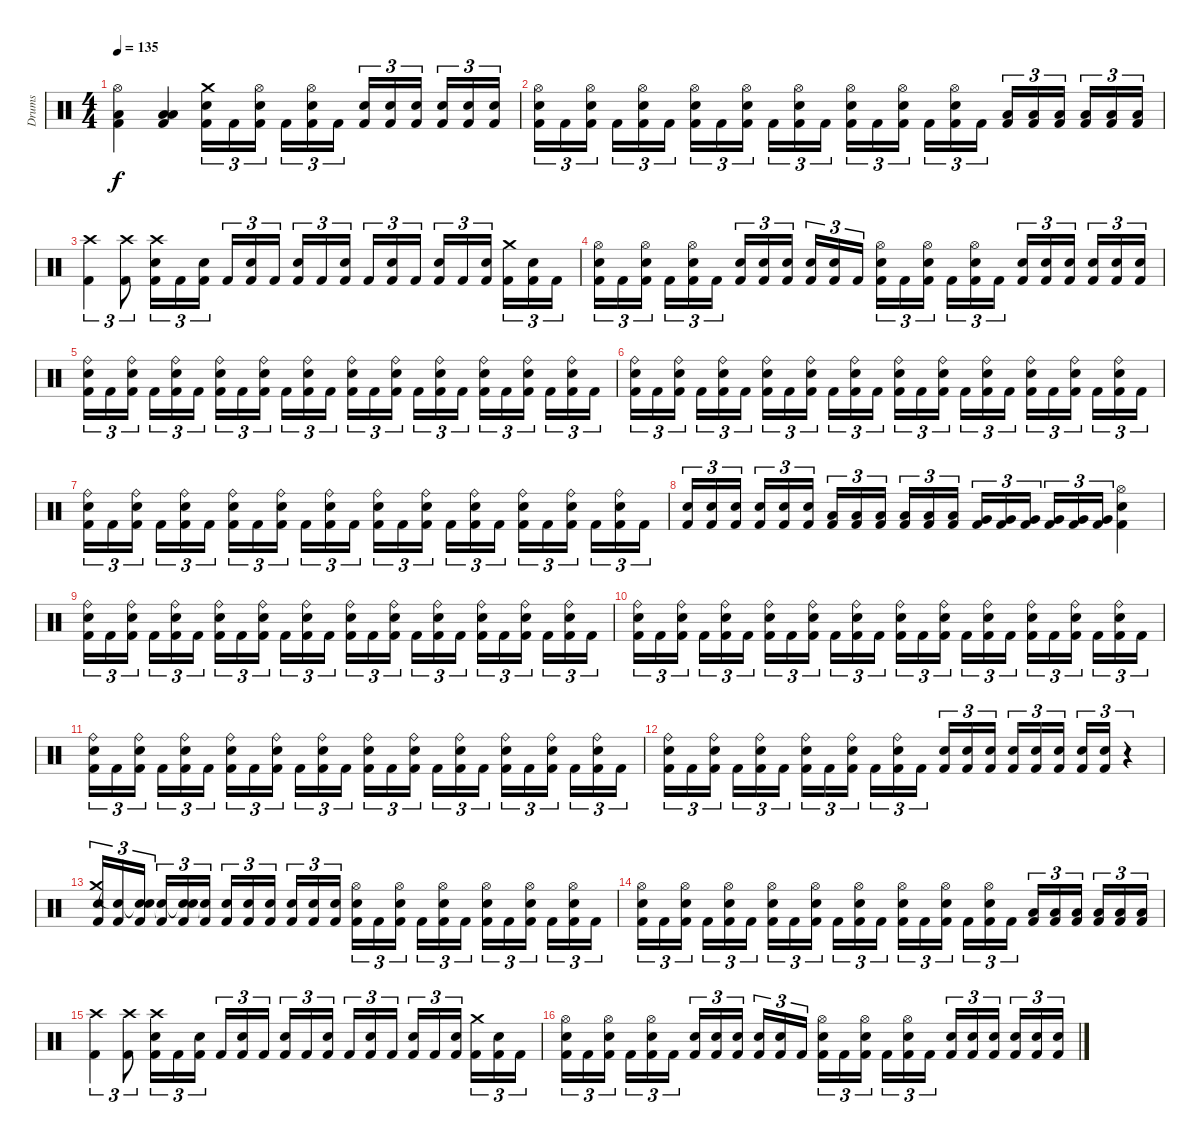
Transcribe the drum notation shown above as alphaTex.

\track ("Drums" "Drums") {instrument percussion}
\staff {score}
\articulation defaults
\ts (4 4)
\tempo 135
\clef neutral
\ks c
("Hi-Hat (open)" "Low Floor Tom (hit)" "Kick (hit) 2").4{dy f} ("Low Floor Tom (hit)" "Low Floor Tom (hit)" "Kick (hit) 2").4 ("Crash medium (hit)" "Electric Snare (hit)" "Kick (hit) 2").16{tu (3 2)} "Kick (hit) 2".16{tu (3 2)} ("Hi-Hat (open)" "Electric Snare (hit)" "Kick (hit) 2").16{tu (3 2)} "Kick (hit) 2".16{tu (3 2)} ("Hi-Hat (open)" "Electric Snare (hit)" "Kick (hit) 2").16{tu (3 2)} "Kick (hit) 2".16{tu (3 2)} ("Electric Snare (hit)" "Kick (hit) 2").16{tu (3 2)} ("Electric Snare (hit)" "Kick (hit) 2").16{tu (3 2)} ("Electric Snare (hit)" "Kick (hit) 2").16{tu (3 2)} ("Electric Snare (hit)" "Kick (hit) 2").16{tu (3 2)} ("Electric Snare (hit)" "Kick (hit) 2").16{tu (3 2)} ("Electric Snare (hit)" "Kick (hit) 2").16{tu (3 2)} |
("Hi-Hat (open)" "Electric Snare (hit)" "Kick (hit) 2").16{tu (3 2)} "Kick (hit) 2".16{tu (3 2)} ("Hi-Hat (open)" "Electric Snare (hit)" "Kick (hit) 2").16{tu (3 2)} "Kick (hit) 2".16{tu (3 2)} ("Hi-Hat (open)" "Electric Snare (hit)" "Kick (hit) 2").16{tu (3 2)} "Kick (hit) 2".16{tu (3 2)} ("Hi-Hat (open)" "Electric Snare (hit)" "Kick (hit) 2").16{tu (3 2)} "Kick (hit) 2".16{tu (3 2)} ("Hi-Hat (open)" "Electric Snare (hit)" "Kick (hit) 2").16{tu (3 2)} "Kick (hit) 2".16{tu (3 2)} ("Hi-Hat (open)" "Electric Snare (hit)" "Kick (hit) 2").16{tu (3 2)} "Kick (hit) 2".16{tu (3 2)} ("Hi-Hat (open)" "Electric Snare (hit)" "Kick (hit) 2").16{tu (3 2)} "Kick (hit) 2".16{tu (3 2)} ("Hi-Hat (open)" "Electric Snare (hit)" "Kick (hit) 2").16{tu (3 2)} "Kick (hit) 2".16{tu (3 2)} ("Hi-Hat (open)" "Electric Snare (hit)" "Kick (hit) 2").16{tu (3 2)} "Kick (hit) 2".16{tu (3 2)} ("Low Floor Tom (hit)" "Kick (hit) 2").16{tu (3 2)} ("Low Floor Tom (hit)" "Kick (hit) 2").16{tu (3 2)} ("Low Floor Tom (hit)" "Kick (hit) 2").16{tu (3 2)} ("Low Floor Tom (hit)" "Kick (hit) 2").16{tu (3 2)} ("Low Floor Tom (hit)" "Kick (hit) 2").16{tu (3 2)} ("Low Floor Tom (hit)" "Kick (hit) 2").16{tu (3 2)} |
("Crash high (hit)" "Kick (hit) 2").4{tu (3 2)} ("Crash high (hit)" "Kick (hit) 2").8{tu (3 2)} ("Crash high (hit)" "Electric Snare (hit)" "Kick (hit) 2").16{tu (3 2)} "Kick (hit) 2".16{tu (3 2)} ("Electric Snare (hit)" "Kick (hit) 2").16{tu (3 2)} "Kick (hit) 2".16{tu (3 2)} ("Electric Snare (hit)" "Kick (hit) 2").16{tu (3 2)} "Kick (hit) 2".16{tu (3 2)} ("Electric Snare (hit)" "Kick (hit) 2").16{tu (3 2)} "Kick (hit) 2".16{tu (3 2)} ("Electric Snare (hit)" "Kick (hit) 2").16{tu (3 2)} "Kick (hit) 2".16{tu (3 2)} ("Electric Snare (hit)" "Kick (hit) 2").16{tu (3 2)} "Kick (hit) 2".16{tu (3 2)} ("Electric Snare (hit)" "Kick (hit) 2").16{tu (3 2)} "Kick (hit) 2".16{tu (3 2)} ("Electric Snare (hit)" "Kick (hit) 2").16{tu (3 2)} ("Crash medium (hit)" "Kick (hit) 2").16{tu (3 2)} ("Electric Snare (hit)" "Kick (hit) 2").16{tu (3 2)} "Kick (hit) 2".16{tu (3 2)} |
("Hi-Hat (open)" "Electric Snare (hit)" "Kick (hit) 2").16{tu (3 2)} "Kick (hit) 2".16{tu (3 2)} ("Hi-Hat (open)" "Electric Snare (hit)" "Kick (hit) 2").16{tu (3 2)} "Kick (hit) 2".16{tu (3 2)} ("Hi-Hat (open)" "Electric Snare (hit)" "Kick (hit) 2").16{tu (3 2)} "Kick (hit) 2".16{tu (3 2)} ("Electric Snare (hit)" "Kick (hit) 2").16{tu (3 2)} ("Electric Snare (hit)" "Kick (hit) 2").16{tu (3 2)} ("Electric Snare (hit)" "Kick (hit) 2").16{tu (3 2)} ("Electric Snare (hit)" "Kick (hit) 2").16{tu (3 2)} ("Electric Snare (hit)" "Kick (hit) 2").16{tu (3 2)} "Kick (hit) 2".16{tu (3 2)} ("Hi-Hat (open)" "Electric Snare (hit)" "Kick (hit) 2").16{tu (3 2)} "Kick (hit) 2".16{tu (3 2)} ("Hi-Hat (open)" "Electric Snare (hit)" "Kick (hit) 2").16{tu (3 2)} "Kick (hit) 2".16{tu (3 2)} ("Hi-Hat (open)" "Electric Snare (hit)" "Kick (hit) 2").16{tu (3 2)} "Kick (hit) 2".16{tu (3 2)} ("Electric Snare (hit)" "Kick (hit) 2").16{tu (3 2)} ("Electric Snare (hit)" "Kick (hit) 2").16{tu (3 2)} ("Electric Snare (hit)" "Kick (hit) 2").16{tu (3 2)} ("Electric Snare (hit)" "Kick (hit) 2").16{tu (3 2)} ("Electric Snare (hit)" "Kick (hit) 2").16{tu (3 2)} ("Electric Snare (hit)" "Kick (hit) 2").16{tu (3 2)} |
("Ride (bell)" "Electric Snare (hit)" "Kick (hit) 2").16{tu (3 2)} "Kick (hit) 2".16{tu (3 2)} ("Ride (bell)" "Electric Snare (hit)" "Kick (hit) 2").16{tu (3 2)} "Kick (hit) 2".16{tu (3 2)} ("Ride (bell)" "Electric Snare (hit)" "Kick (hit) 2").16{tu (3 2)} "Kick (hit) 2".16{tu (3 2)} ("Ride (bell)" "Electric Snare (hit)" "Kick (hit) 2").16{tu (3 2)} "Kick (hit) 2".16{tu (3 2)} ("Ride (bell)" "Electric Snare (hit)" "Kick (hit) 2").16{tu (3 2)} "Kick (hit) 2".16{tu (3 2)} ("Ride (bell)" "Electric Snare (hit)" "Kick (hit) 2").16{tu (3 2)} "Kick (hit) 2".16{tu (3 2)} ("Ride (bell)" "Electric Snare (hit)" "Kick (hit) 2").16{tu (3 2)} "Kick (hit) 2".16{tu (3 2)} ("Ride (bell)" "Electric Snare (hit)" "Kick (hit) 2").16{tu (3 2)} "Kick (hit) 2".16{tu (3 2)} ("Ride (bell)" "Electric Snare (hit)" "Kick (hit) 2").16{tu (3 2)} "Kick (hit) 2".16{tu (3 2)} ("Ride (bell)" "Electric Snare (hit)" "Kick (hit) 2").16{tu (3 2)} "Kick (hit) 2".16{tu (3 2)} ("Ride (bell)" "Electric Snare (hit)" "Kick (hit) 2").16{tu (3 2)} "Kick (hit) 2".16{tu (3 2)} ("Ride (bell)" "Electric Snare (hit)" "Kick (hit) 2").16{tu (3 2)} "Kick (hit) 2".16{tu (3 2)} |
("Ride (bell)" "Electric Snare (hit)" "Kick (hit) 2").16{tu (3 2)} "Kick (hit) 2".16{tu (3 2)} ("Ride (bell)" "Electric Snare (hit)" "Kick (hit) 2").16{tu (3 2)} "Kick (hit) 2".16{tu (3 2)} ("Ride (bell)" "Electric Snare (hit)" "Kick (hit) 2").16{tu (3 2)} "Kick (hit) 2".16{tu (3 2)} ("Ride (bell)" "Electric Snare (hit)" "Kick (hit) 2").16{tu (3 2)} "Kick (hit) 2".16{tu (3 2)} ("Ride (bell)" "Electric Snare (hit)" "Kick (hit) 2").16{tu (3 2)} "Kick (hit) 2".16{tu (3 2)} ("Ride (bell)" "Electric Snare (hit)" "Kick (hit) 2").16{tu (3 2)} "Kick (hit) 2".16{tu (3 2)} ("Ride (bell)" "Electric Snare (hit)" "Kick (hit) 2").16{tu (3 2)} "Kick (hit) 2".16{tu (3 2)} ("Ride (bell)" "Electric Snare (hit)" "Kick (hit) 2").16{tu (3 2)} "Kick (hit) 2".16{tu (3 2)} ("Ride (bell)" "Electric Snare (hit)" "Kick (hit) 2").16{tu (3 2)} "Kick (hit) 2".16{tu (3 2)} ("Ride (bell)" "Electric Snare (hit)" "Kick (hit) 2").16{tu (3 2)} "Kick (hit) 2".16{tu (3 2)} ("Ride (bell)" "Electric Snare (hit)" "Kick (hit) 2").16{tu (3 2)} "Kick (hit) 2".16{tu (3 2)} ("Ride (bell)" "Electric Snare (hit)" "Kick (hit) 2").16{tu (3 2)} "Kick (hit) 2".16{tu (3 2)} |
("Ride (bell)" "Electric Snare (hit)" "Kick (hit) 2").16{tu (3 2)} "Kick (hit) 2".16{tu (3 2)} ("Ride (bell)" "Electric Snare (hit)" "Kick (hit) 2").16{tu (3 2)} "Kick (hit) 2".16{tu (3 2)} ("Ride (bell)" "Electric Snare (hit)" "Kick (hit) 2").16{tu (3 2)} "Kick (hit) 2".16{tu (3 2)} ("Ride (bell)" "Electric Snare (hit)" "Kick (hit) 2").16{tu (3 2)} "Kick (hit) 2".16{tu (3 2)} ("Ride (bell)" "Electric Snare (hit)" "Kick (hit) 2").16{tu (3 2)} "Kick (hit) 2".16{tu (3 2)} ("Ride (bell)" "Electric Snare (hit)" "Kick (hit) 2").16{tu (3 2)} "Kick (hit) 2".16{tu (3 2)} ("Ride (bell)" "Electric Snare (hit)" "Kick (hit) 2").16{tu (3 2)} "Kick (hit) 2".16{tu (3 2)} ("Ride (bell)" "Electric Snare (hit)" "Kick (hit) 2").16{tu (3 2)} "Kick (hit) 2".16{tu (3 2)} ("Ride (bell)" "Electric Snare (hit)" "Kick (hit) 2").16{tu (3 2)} "Kick (hit) 2".16{tu (3 2)} ("Ride (bell)" "Electric Snare (hit)" "Kick (hit) 2").16{tu (3 2)} "Kick (hit) 2".16{tu (3 2)} ("Ride (bell)" "Electric Snare (hit)" "Kick (hit) 2").16{tu (3 2)} "Kick (hit) 2".16{tu (3 2)} ("Ride (bell)" "Electric Snare (hit)" "Kick (hit) 2").16{tu (3 2)} "Kick (hit) 2".16{tu (3 2)} |
("Electric Snare (hit)" "Kick (hit) 2").16{tu (3 2)} ("Electric Snare (hit)" "Kick (hit) 2").16{tu (3 2)} ("Electric Snare (hit)" "Kick (hit) 2").16{tu (3 2)} ("Electric Snare (hit)" "Kick (hit) 2").16{tu (3 2)} ("Electric Snare (hit)" "Kick (hit) 2").16{tu (3 2)} ("Electric Snare (hit)" "Kick (hit) 2").16{tu (3 2)} ("Low Floor Tom (hit)" "Kick (hit) 2").16{tu (3 2)} ("Low Floor Tom (hit)" "Kick (hit) 2").16{tu (3 2)} ("Low Floor Tom (hit)" "Kick (hit) 2").16{tu (3 2)} ("Low Floor Tom (hit)" "Kick (hit) 2").16{tu (3 2)} ("Low Floor Tom (hit)" "Kick (hit) 2").16{tu (3 2)} ("Low Floor Tom (hit)" "Kick (hit) 2").16{tu (3 2)} ("Very Low Tom (hit)" "Kick (hit) 2").16{tu (3 2)} ("Very Low Tom (hit)" "Kick (hit) 2").16{tu (3 2)} ("Very Low Tom (hit)" "Kick (hit) 2").16{tu (3 2)} ("Very Low Tom (hit)" "Kick (hit) 2").16{tu (3 2)} ("Very Low Tom (hit)" "Kick (hit) 2").16{tu (3 2)} ("Very Low Tom (hit)" "Kick (hit) 2").16{tu (3 2)} ("Hi-Hat (open)" "Electric Snare (hit)" "Kick (hit) 2").4 |
("Ride (bell)" "Electric Snare (hit)" "Kick (hit) 2").16{tu (3 2)} "Kick (hit) 2".16{tu (3 2)} ("Ride (bell)" "Electric Snare (hit)" "Kick (hit) 2").16{tu (3 2)} "Kick (hit) 2".16{tu (3 2)} ("Ride (bell)" "Electric Snare (hit)" "Kick (hit) 2").16{tu (3 2)} "Kick (hit) 2".16{tu (3 2)} ("Ride (bell)" "Electric Snare (hit)" "Kick (hit) 2").16{tu (3 2)} "Kick (hit) 2".16{tu (3 2)} ("Ride (bell)" "Electric Snare (hit)" "Kick (hit) 2").16{tu (3 2)} "Kick (hit) 2".16{tu (3 2)} ("Ride (bell)" "Electric Snare (hit)" "Kick (hit) 2").16{tu (3 2)} "Kick (hit) 2".16{tu (3 2)} ("Ride (bell)" "Electric Snare (hit)" "Kick (hit) 2").16{tu (3 2)} "Kick (hit) 2".16{tu (3 2)} ("Ride (bell)" "Electric Snare (hit)" "Kick (hit) 2").16{tu (3 2)} "Kick (hit) 2".16{tu (3 2)} ("Ride (bell)" "Electric Snare (hit)" "Kick (hit) 2").16{tu (3 2)} "Kick (hit) 2".16{tu (3 2)} ("Ride (bell)" "Electric Snare (hit)" "Kick (hit) 2").16{tu (3 2)} "Kick (hit) 2".16{tu (3 2)} ("Ride (bell)" "Electric Snare (hit)" "Kick (hit) 2").16{tu (3 2)} "Kick (hit) 2".16{tu (3 2)} ("Ride (bell)" "Electric Snare (hit)" "Kick (hit) 2").16{tu (3 2)} "Kick (hit) 2".16{tu (3 2)} |
("Ride (bell)" "Electric Snare (hit)" "Kick (hit) 2").16{tu (3 2)} "Kick (hit) 2".16{tu (3 2)} ("Ride (bell)" "Electric Snare (hit)" "Kick (hit) 2").16{tu (3 2)} "Kick (hit) 2".16{tu (3 2)} ("Ride (bell)" "Electric Snare (hit)" "Kick (hit) 2").16{tu (3 2)} "Kick (hit) 2".16{tu (3 2)} ("Ride (bell)" "Electric Snare (hit)" "Kick (hit) 2").16{tu (3 2)} "Kick (hit) 2".16{tu (3 2)} ("Ride (bell)" "Electric Snare (hit)" "Kick (hit) 2").16{tu (3 2)} "Kick (hit) 2".16{tu (3 2)} ("Ride (bell)" "Electric Snare (hit)" "Kick (hit) 2").16{tu (3 2)} "Kick (hit) 2".16{tu (3 2)} ("Ride (bell)" "Electric Snare (hit)" "Kick (hit) 2").16{tu (3 2)} "Kick (hit) 2".16{tu (3 2)} ("Ride (bell)" "Electric Snare (hit)" "Kick (hit) 2").16{tu (3 2)} "Kick (hit) 2".16{tu (3 2)} ("Ride (bell)" "Electric Snare (hit)" "Kick (hit) 2").16{tu (3 2)} "Kick (hit) 2".16{tu (3 2)} ("Ride (bell)" "Electric Snare (hit)" "Kick (hit) 2").16{tu (3 2)} "Kick (hit) 2".16{tu (3 2)} ("Ride (bell)" "Electric Snare (hit)" "Kick (hit) 2").16{tu (3 2)} "Kick (hit) 2".16{tu (3 2)} ("Ride (bell)" "Electric Snare (hit)" "Kick (hit) 2").16{tu (3 2)} "Kick (hit) 2".16{tu (3 2)} |
("Ride (bell)" "Electric Snare (hit)" "Kick (hit) 2").16{tu (3 2)} "Kick (hit) 2".16{tu (3 2)} ("Ride (bell)" "Electric Snare (hit)" "Kick (hit) 2").16{tu (3 2)} "Kick (hit) 2".16{tu (3 2)} ("Ride (bell)" "Electric Snare (hit)" "Kick (hit) 2").16{tu (3 2)} "Kick (hit) 2".16{tu (3 2)} ("Ride (bell)" "Electric Snare (hit)" "Kick (hit) 2").16{tu (3 2)} "Kick (hit) 2".16{tu (3 2)} ("Ride (bell)" "Electric Snare (hit)" "Kick (hit) 2").16{tu (3 2)} "Kick (hit) 2".16{tu (3 2)} ("Ride (bell)" "Electric Snare (hit)" "Kick (hit) 2").16{tu (3 2)} "Kick (hit) 2".16{tu (3 2)} ("Ride (bell)" "Electric Snare (hit)" "Kick (hit) 2").16{tu (3 2)} "Kick (hit) 2".16{tu (3 2)} ("Ride (bell)" "Electric Snare (hit)" "Kick (hit) 2").16{tu (3 2)} "Kick (hit) 2".16{tu (3 2)} ("Ride (bell)" "Electric Snare (hit)" "Kick (hit) 2").16{tu (3 2)} "Kick (hit) 2".16{tu (3 2)} ("Ride (bell)" "Electric Snare (hit)" "Kick (hit) 2").16{tu (3 2)} "Kick (hit) 2".16{tu (3 2)} ("Ride (bell)" "Electric Snare (hit)" "Kick (hit) 2").16{tu (3 2)} "Kick (hit) 2".16{tu (3 2)} ("Ride (bell)" "Electric Snare (hit)" "Kick (hit) 2").16{tu (3 2)} "Kick (hit) 2".16{tu (3 2)} |
("Ride (bell)" "Electric Snare (hit)" "Kick (hit) 2").16{tu (3 2)} "Kick (hit) 2".16{tu (3 2)} ("Ride (bell)" "Electric Snare (hit)" "Kick (hit) 2").16{tu (3 2)} "Kick (hit) 2".16{tu (3 2)} ("Ride (bell)" "Electric Snare (hit)" "Kick (hit) 2").16{tu (3 2)} "Kick (hit) 2".16{tu (3 2)} ("Ride (bell)" "Electric Snare (hit)" "Kick (hit) 2").16{tu (3 2)} "Kick (hit) 2".16{tu (3 2)} ("Ride (bell)" "Electric Snare (hit)" "Kick (hit) 2").16{tu (3 2)} "Kick (hit) 2".16{tu (3 2)} ("Ride (bell)" "Electric Snare (hit)" "Kick (hit) 2").16{tu (3 2)} "Kick (hit) 2".16{tu (3 2)} ("Electric Snare (hit)" "Kick (hit) 2").16{tu (3 2)} ("Electric Snare (hit)" "Kick (hit) 2").16{tu (3 2)} ("Electric Snare (hit)" "Kick (hit) 2").16{tu (3 2)} ("Electric Snare (hit)" "Kick (hit) 2").16{tu (3 2)} ("Electric Snare (hit)" "Kick (hit) 2").16{tu (3 2)} ("Electric Snare (hit)" "Kick (hit) 2").16{tu (3 2)} ("Electric Snare (hit)" "Kick (hit) 2").16{tu (3 2)} ("Electric Snare (hit)" "Kick (hit) 2").16{tu (3 2)} r.4{tu (3 2)} |
("Crash medium (hit)" "Electric Snare (hit)" "Kick (hit) 2").16{tu (3 2)} ("Snare (hit)"{t} "Kick (hit) 2").16{tu (3 2)} ("Snare (hit)"{t} "Electric Snare (hit)" "Kick (hit) 2").16{tu (3 2)} ("Snare (hit)"{t} "Kick (hit) 2").16{tu (3 2)} ("Snare (hit)"{t} "Electric Snare (hit)" "Kick (hit) 2").16{tu (3 2)} ("Snare (hit)"{t} "Kick (hit) 2").16{tu (3 2)} ("Electric Snare (hit)" "Kick (hit) 2").16{tu (3 2)} ("Electric Snare (hit)" "Kick (hit) 2").16{tu (3 2)} ("Electric Snare (hit)" "Kick (hit) 2").16{tu (3 2)} ("Electric Snare (hit)" "Kick (hit) 2").16{tu (3 2)} ("Electric Snare (hit)" "Kick (hit) 2").16{tu (3 2)} ("Electric Snare (hit)" "Kick (hit) 2").16{tu (3 2)} ("Hi-Hat (open)" "Electric Snare (hit)" "Kick (hit) 2").16{tu (3 2)} "Kick (hit) 2".16{tu (3 2)} ("Hi-Hat (open)" "Electric Snare (hit)" "Kick (hit) 2").16{tu (3 2)} "Kick (hit) 2".16{tu (3 2)} ("Hi-Hat (open)" "Electric Snare (hit)" "Kick (hit) 2").16{tu (3 2)} "Kick (hit) 2".16{tu (3 2)} ("Hi-Hat (open)" "Electric Snare (hit)" "Kick (hit) 2").16{tu (3 2)} "Kick (hit) 2".16{tu (3 2)} ("Hi-Hat (open)" "Electric Snare (hit)" "Kick (hit) 2").16{tu (3 2)} "Kick (hit) 2".16{tu (3 2)} ("Hi-Hat (open)" "Electric Snare (hit)" "Kick (hit) 2").16{tu (3 2)} "Kick (hit) 2".16{tu (3 2)} |
("Hi-Hat (open)" "Electric Snare (hit)" "Kick (hit) 2").16{tu (3 2)} "Kick (hit) 2".16{tu (3 2)} ("Hi-Hat (open)" "Electric Snare (hit)" "Kick (hit) 2").16{tu (3 2)} "Kick (hit) 2".16{tu (3 2)} ("Hi-Hat (open)" "Electric Snare (hit)" "Kick (hit) 2").16{tu (3 2)} "Kick (hit) 2".16{tu (3 2)} ("Hi-Hat (open)" "Electric Snare (hit)" "Kick (hit) 2").16{tu (3 2)} "Kick (hit) 2".16{tu (3 2)} ("Hi-Hat (open)" "Electric Snare (hit)" "Kick (hit) 2").16{tu (3 2)} "Kick (hit) 2".16{tu (3 2)} ("Hi-Hat (open)" "Electric Snare (hit)" "Kick (hit) 2").16{tu (3 2)} "Kick (hit) 2".16{tu (3 2)} ("Hi-Hat (open)" "Electric Snare (hit)" "Kick (hit) 2").16{tu (3 2)} "Kick (hit) 2".16{tu (3 2)} ("Hi-Hat (open)" "Electric Snare (hit)" "Kick (hit) 2").16{tu (3 2)} "Kick (hit) 2".16{tu (3 2)} ("Hi-Hat (open)" "Electric Snare (hit)" "Kick (hit) 2").16{tu (3 2)} "Kick (hit) 2".16{tu (3 2)} ("Low Floor Tom (hit)" "Kick (hit) 2").16{tu (3 2)} ("Low Floor Tom (hit)" "Kick (hit) 2").16{tu (3 2)} ("Low Floor Tom (hit)" "Kick (hit) 2").16{tu (3 2)} ("Low Floor Tom (hit)" "Kick (hit) 2").16{tu (3 2)} ("Low Floor Tom (hit)" "Kick (hit) 2").16{tu (3 2)} ("Low Floor Tom (hit)" "Kick (hit) 2").16{tu (3 2)} |
("Crash high (hit)" "Kick (hit) 2").4{tu (3 2)} ("Crash high (hit)" "Kick (hit) 2").8{tu (3 2)} ("Crash high (hit)" "Electric Snare (hit)" "Kick (hit) 2").16{tu (3 2)} "Kick (hit) 2".16{tu (3 2)} ("Electric Snare (hit)" "Kick (hit) 2").16{tu (3 2)} "Kick (hit) 2".16{tu (3 2)} ("Electric Snare (hit)" "Kick (hit) 2").16{tu (3 2)} "Kick (hit) 2".16{tu (3 2)} ("Electric Snare (hit)" "Kick (hit) 2").16{tu (3 2)} "Kick (hit) 2".16{tu (3 2)} ("Electric Snare (hit)" "Kick (hit) 2").16{tu (3 2)} "Kick (hit) 2".16{tu (3 2)} ("Electric Snare (hit)" "Kick (hit) 2").16{tu (3 2)} "Kick (hit) 2".16{tu (3 2)} ("Electric Snare (hit)" "Kick (hit) 2").16{tu (3 2)} "Kick (hit) 2".16{tu (3 2)} ("Electric Snare (hit)" "Kick (hit) 2").16{tu (3 2)} ("Crash medium (hit)" "Kick (hit) 2").16{tu (3 2)} ("Electric Snare (hit)" "Kick (hit) 2").16{tu (3 2)} "Kick (hit) 2".16{tu (3 2)} |
("Hi-Hat (open)" "Electric Snare (hit)" "Kick (hit) 2").16{tu (3 2)} "Kick (hit) 2".16{tu (3 2)} ("Hi-Hat (open)" "Electric Snare (hit)" "Kick (hit) 2").16{tu (3 2)} "Kick (hit) 2".16{tu (3 2)} ("Hi-Hat (open)" "Electric Snare (hit)" "Kick (hit) 2").16{tu (3 2)} "Kick (hit) 2".16{tu (3 2)} ("Electric Snare (hit)" "Kick (hit) 2").16{tu (3 2)} ("Electric Snare (hit)" "Kick (hit) 2").16{tu (3 2)} ("Electric Snare (hit)" "Kick (hit) 2").16{tu (3 2)} ("Electric Snare (hit)" "Kick (hit) 2").16{tu (3 2)} ("Electric Snare (hit)" "Kick (hit) 2").16{tu (3 2)} "Kick (hit) 2".16{tu (3 2)} ("Hi-Hat (open)" "Electric Snare (hit)" "Kick (hit) 2").16{tu (3 2)} "Kick (hit) 2".16{tu (3 2)} ("Hi-Hat (open)" "Electric Snare (hit)" "Kick (hit) 2").16{tu (3 2)} "Kick (hit) 2".16{tu (3 2)} ("Hi-Hat (open)" "Electric Snare (hit)" "Kick (hit) 2").16{tu (3 2)} "Kick (hit) 2".16{tu (3 2)} ("Electric Snare (hit)" "Kick (hit) 2").16{tu (3 2)} ("Electric Snare (hit)" "Kick (hit) 2").16{tu (3 2)} ("Electric Snare (hit)" "Kick (hit) 2").16{tu (3 2)} ("Electric Snare (hit)" "Kick (hit) 2").16{tu (3 2)} ("Electric Snare (hit)" "Kick (hit) 2").16{tu (3 2)} ("Electric Snare (hit)" "Kick (hit) 2").16{tu (3 2)}
